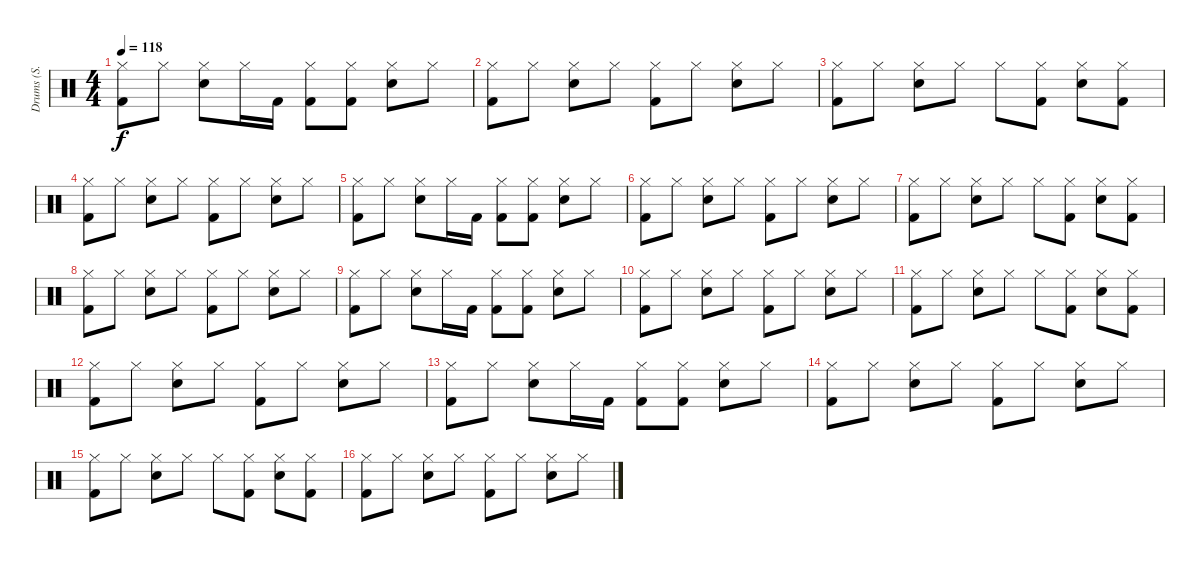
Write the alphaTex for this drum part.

\track ("Drums (S. Rockenfield)" "Drums (S. ") {instrument percussion}
\staff {score}
\articulation defaults
\ts (4 4)
\tempo 118
\clef neutral
\ks c
("Hi-Hat (closed)" "Kick (hit) 2").8{dy f} "Hi-Hat (closed)".8 ("Hi-Hat (closed)" "Snare (hit) 2").8 "Hi-Hat (closed)".16 "Kick (hit) 2".16 ("Hi-Hat (closed)" "Kick (hit) 2").8 ("Hi-Hat (closed)" "Kick (hit) 2").8 ("Hi-Hat (closed)" "Snare (hit) 2").8 "Hi-Hat (closed)".8 |
("Hi-Hat (closed)" "Kick (hit) 2").8 "Hi-Hat (closed)".8 ("Hi-Hat (closed)" "Snare (hit) 2").8 "Hi-Hat (closed)".8 ("Hi-Hat (closed)" "Kick (hit) 2").8 "Hi-Hat (closed)".8 ("Hi-Hat (closed)" "Snare (hit) 2").8 "Hi-Hat (closed)".8 |
("Hi-Hat (closed)" "Kick (hit) 2").8 "Hi-Hat (closed)".8 ("Hi-Hat (closed)" "Snare (hit) 2").8 "Hi-Hat (closed)".8 "Hi-Hat (closed)".8 ("Hi-Hat (closed)" "Kick (hit) 2").8 ("Hi-Hat (closed)" "Snare (hit) 2").8 ("Hi-Hat (closed)" "Kick (hit) 2").8 |
("Hi-Hat (closed)" "Kick (hit) 2").8 "Hi-Hat (closed)".8 ("Hi-Hat (closed)" "Snare (hit) 2").8 "Hi-Hat (closed)".8 ("Hi-Hat (closed)" "Kick (hit) 2").8 "Hi-Hat (closed)".8 ("Hi-Hat (closed)" "Snare (hit) 2").8 "Hi-Hat (closed)".8 |
("Hi-Hat (closed)" "Kick (hit) 2").8 "Hi-Hat (closed)".8 ("Hi-Hat (closed)" "Snare (hit) 2").8 "Hi-Hat (closed)".16 "Kick (hit) 2".16 ("Hi-Hat (closed)" "Kick (hit) 2").8 ("Hi-Hat (closed)" "Kick (hit) 2").8 ("Hi-Hat (closed)" "Snare (hit) 2").8 "Hi-Hat (closed)".8 |
("Hi-Hat (closed)" "Kick (hit) 2").8 "Hi-Hat (closed)".8 ("Hi-Hat (closed)" "Snare (hit) 2").8 "Hi-Hat (closed)".8 ("Hi-Hat (closed)" "Kick (hit) 2").8 "Hi-Hat (closed)".8 ("Hi-Hat (closed)" "Snare (hit) 2").8 "Hi-Hat (closed)".8 |
("Hi-Hat (closed)" "Kick (hit) 2").8 "Hi-Hat (closed)".8 ("Hi-Hat (closed)" "Snare (hit) 2").8 "Hi-Hat (closed)".8 "Hi-Hat (closed)".8 ("Hi-Hat (closed)" "Kick (hit) 2").8 ("Hi-Hat (closed)" "Snare (hit) 2").8 ("Hi-Hat (closed)" "Kick (hit) 2").8 |
("Hi-Hat (closed)" "Kick (hit) 2").8 "Hi-Hat (closed)".8 ("Hi-Hat (closed)" "Snare (hit) 2").8 "Hi-Hat (closed)".8 ("Hi-Hat (closed)" "Kick (hit) 2").8 "Hi-Hat (closed)".8 ("Hi-Hat (closed)" "Snare (hit) 2").8 "Hi-Hat (closed)".8 |
("Hi-Hat (closed)" "Kick (hit) 2").8 "Hi-Hat (closed)".8 ("Hi-Hat (closed)" "Snare (hit) 2").8 "Hi-Hat (closed)".16 "Kick (hit) 2".16 ("Hi-Hat (closed)" "Kick (hit) 2").8 ("Hi-Hat (closed)" "Kick (hit) 2").8 ("Hi-Hat (closed)" "Snare (hit) 2").8 "Hi-Hat (closed)".8 |
("Hi-Hat (closed)" "Kick (hit) 2").8 "Hi-Hat (closed)".8 ("Hi-Hat (closed)" "Snare (hit) 2").8 "Hi-Hat (closed)".8 ("Hi-Hat (closed)" "Kick (hit) 2").8 "Hi-Hat (closed)".8 ("Hi-Hat (closed)" "Snare (hit) 2").8 "Hi-Hat (closed)".8 |
("Hi-Hat (closed)" "Kick (hit) 2").8 "Hi-Hat (closed)".8 ("Hi-Hat (closed)" "Snare (hit) 2").8 "Hi-Hat (closed)".8 "Hi-Hat (closed)".8 ("Hi-Hat (closed)" "Kick (hit) 2").8 ("Hi-Hat (closed)" "Snare (hit) 2").8 ("Hi-Hat (closed)" "Kick (hit) 2").8 |
("Hi-Hat (closed)" "Kick (hit) 2").8 "Hi-Hat (closed)".8 ("Hi-Hat (closed)" "Snare (hit) 2").8 "Hi-Hat (closed)".8 ("Hi-Hat (closed)" "Kick (hit) 2").8 "Hi-Hat (closed)".8 ("Hi-Hat (closed)" "Snare (hit) 2").8 "Hi-Hat (closed)".8 |
("Hi-Hat (closed)" "Kick (hit) 2").8 "Hi-Hat (closed)".8 ("Hi-Hat (closed)" "Snare (hit) 2").8 "Hi-Hat (closed)".16 "Kick (hit) 2".16 ("Hi-Hat (closed)" "Kick (hit) 2").8 ("Hi-Hat (closed)" "Kick (hit) 2").8 ("Hi-Hat (closed)" "Snare (hit) 2").8 "Hi-Hat (closed)".8 |
("Hi-Hat (closed)" "Kick (hit) 2").8 "Hi-Hat (closed)".8 ("Hi-Hat (closed)" "Snare (hit) 2").8 "Hi-Hat (closed)".8 ("Hi-Hat (closed)" "Kick (hit) 2").8 "Hi-Hat (closed)".8 ("Hi-Hat (closed)" "Snare (hit) 2").8 "Hi-Hat (closed)".8 |
("Hi-Hat (closed)" "Kick (hit) 2").8 "Hi-Hat (closed)".8 ("Hi-Hat (closed)" "Snare (hit) 2").8 "Hi-Hat (closed)".8 "Hi-Hat (closed)".8 ("Hi-Hat (closed)" "Kick (hit) 2").8 ("Hi-Hat (closed)" "Snare (hit) 2").8 ("Hi-Hat (closed)" "Kick (hit) 2").8 |
("Hi-Hat (closed)" "Kick (hit) 2").8 "Hi-Hat (closed)".8 ("Hi-Hat (closed)" "Snare (hit) 2").8 "Hi-Hat (closed)".8 ("Hi-Hat (closed)" "Kick (hit) 2").8 "Hi-Hat (closed)".8 ("Hi-Hat (closed)" "Snare (hit) 2").8 "Hi-Hat (closed)".8
